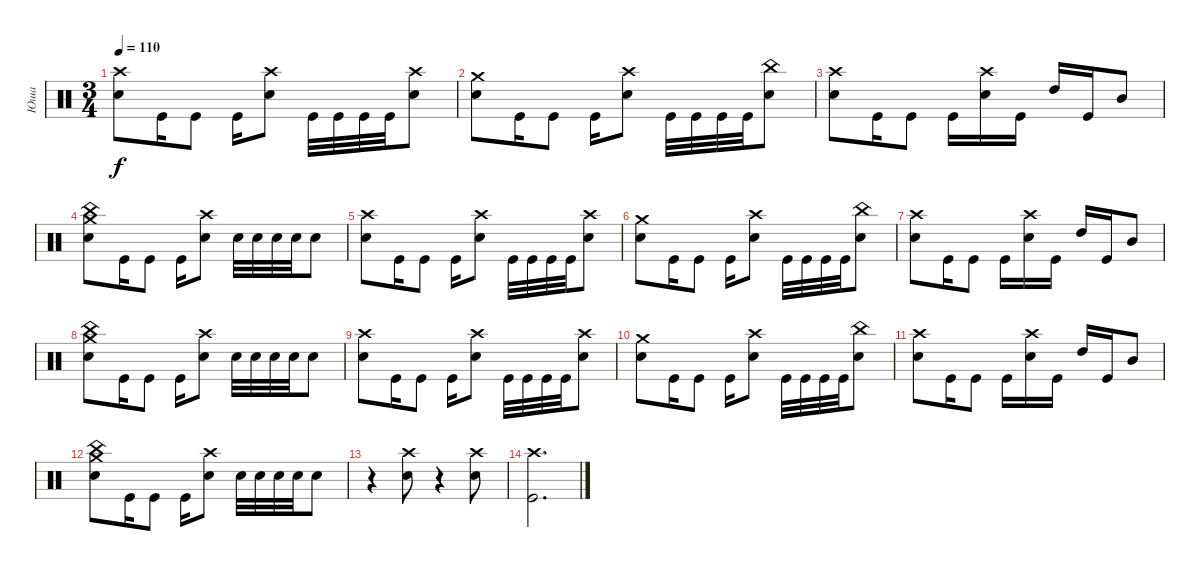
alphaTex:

\track ("Юша" "Юша") {instrument percussion}
\staff {score}
\articulation defaults
\ts (3 4)
\tempo 110
\clef neutral
\ks c
("Crash high (hit)" "Snare (hit) 2").8{dy f} "Kick (hit)".16 "Kick (hit)".8 "Kick (hit)".16 ("Snare (hit) 2" "Crash high (hit)").8 "Kick (hit)".32 "Kick (hit)".32 "Kick (hit)".32 "Kick (hit)".32 ("Snare (hit) 2" "Crash high (hit)").8 |
("Crash medium (hit)" "Snare (hit) 2").8 "Kick (hit)".16 "Kick (hit)".8 "Kick (hit)".16 ("Snare (hit) 2" "Crash high (hit)").8 "Kick (hit)".32 "Kick (hit)".32 "Kick (hit)".32 "Kick (hit)".32 ("Snare (hit) 2" "China (hit)").8 |
("Crash high (hit)" "Snare (hit) 2").8 "Kick (hit)".16 "Kick (hit)".8 "Kick (hit)".16 ("Snare (hit) 2" "Crash high (hit)").16 "Kick (hit)".16 "High Tom (hit)".16 "Kick (hit)".16 "Mid Tom (hit)".8 |
("Crash medium (hit)" "Snare (hit) 2" "China (hit)").8 "Kick (hit)".16 "Kick (hit)".8 "Kick (hit)".16 ("Snare (hit) 2" "Crash high (hit)").8 "Snare (hit) 2".32 "Snare (hit) 2".32 "Snare (hit) 2".32 "Snare (hit) 2".32 "Snare (hit) 2".8 |
("Crash high (hit)" "Snare (hit) 2").8 "Kick (hit)".16 "Kick (hit)".8 "Kick (hit)".16 ("Snare (hit) 2" "Crash high (hit)").8 "Kick (hit)".32 "Kick (hit)".32 "Kick (hit)".32 "Kick (hit)".32 ("Snare (hit) 2" "Crash high (hit)").8 |
("Crash medium (hit)" "Snare (hit) 2").8 "Kick (hit)".16 "Kick (hit)".8 "Kick (hit)".16 ("Snare (hit) 2" "Crash high (hit)").8 "Kick (hit)".32 "Kick (hit)".32 "Kick (hit)".32 "Kick (hit)".32 ("Snare (hit) 2" "China (hit)").8 |
("Crash high (hit)" "Snare (hit) 2").8 "Kick (hit)".16 "Kick (hit)".8 "Kick (hit)".16 ("Snare (hit) 2" "Crash high (hit)").16 "Kick (hit)".16 "High Tom (hit)".16 "Kick (hit)".16 "Mid Tom (hit)".8 |
("Crash medium (hit)" "Snare (hit) 2" "China (hit)").8 "Kick (hit)".16 "Kick (hit)".8 "Kick (hit)".16 ("Snare (hit) 2" "Crash high (hit)").8 "Snare (hit) 2".32 "Snare (hit) 2".32 "Snare (hit) 2".32 "Snare (hit) 2".32 "Snare (hit) 2".8 |
("Crash high (hit)" "Snare (hit) 2").8 "Kick (hit)".16 "Kick (hit)".8 "Kick (hit)".16 ("Snare (hit) 2" "Crash high (hit)").8 "Kick (hit)".32 "Kick (hit)".32 "Kick (hit)".32 "Kick (hit)".32 ("Snare (hit) 2" "Crash high (hit)").8 |
("Crash medium (hit)" "Snare (hit) 2").8 "Kick (hit)".16 "Kick (hit)".8 "Kick (hit)".16 ("Snare (hit) 2" "Crash high (hit)").8 "Kick (hit)".32 "Kick (hit)".32 "Kick (hit)".32 "Kick (hit)".32 ("Snare (hit) 2" "China (hit)").8 |
("Crash high (hit)" "Snare (hit) 2").8 "Kick (hit)".16 "Kick (hit)".8 "Kick (hit)".16 ("Snare (hit) 2" "Crash high (hit)").16 "Kick (hit)".16 "High Tom (hit)".16 "Kick (hit)".16 "Mid Tom (hit)".8 |
("Crash medium (hit)" "Snare (hit) 2" "China (hit)").8 "Kick (hit)".16 "Kick (hit)".8 "Kick (hit)".16 ("Snare (hit) 2" "Crash high (hit)").8 "Snare (hit) 2".32 "Snare (hit) 2".32 "Snare (hit) 2".32 "Snare (hit) 2".32 "Snare (hit) 2".8 |
r.4 ("Snare (hit) 2" "Crash high (hit)").8 r.4 ("Snare (hit) 2" "Crash high (hit)").8 |
("Kick (hit)" "Crash high (hit)").2{d}
